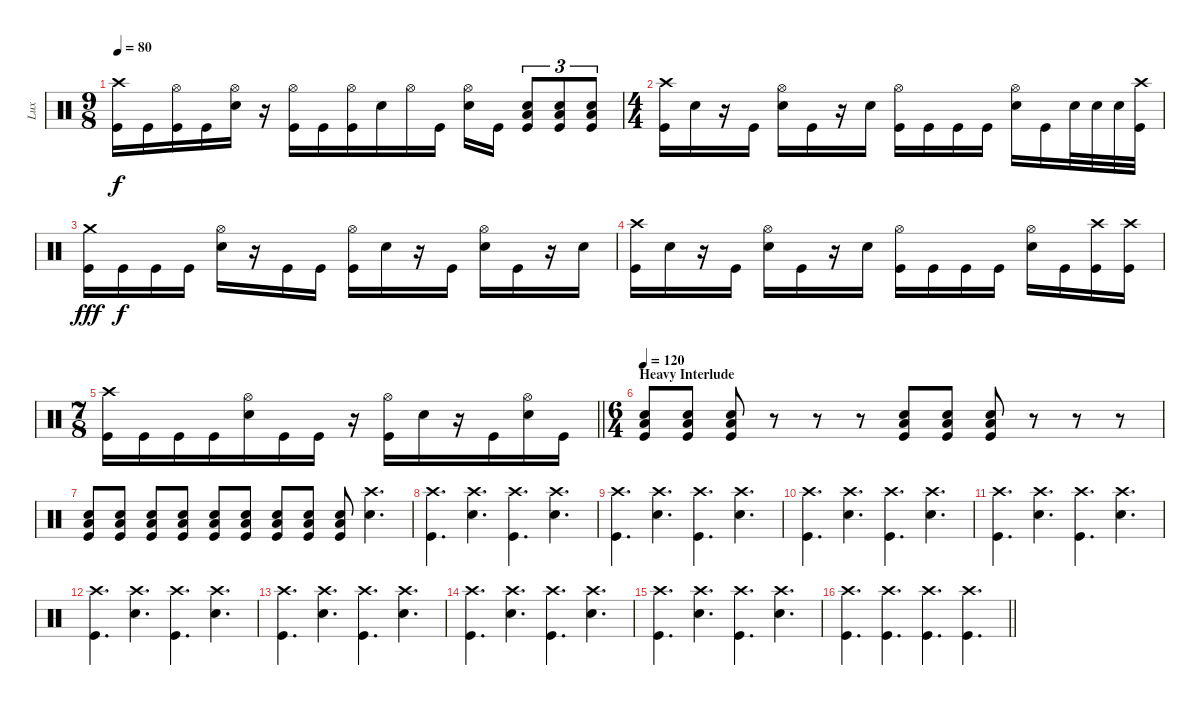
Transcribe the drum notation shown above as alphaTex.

\track ("Lux" "Lux") {instrument percussion}
\staff {score}
\articulation defaults
\ts (9 8)
\tempo 80
\clef neutral
\ks c
("Crash high (hit)" "Kick (hit)").16{dy f} "Kick (hit)".16 ("Hi-Hat (open)" "Kick (hit)").16 "Kick (hit)".16 ("Hi-Hat (open)" "Snare (hit) 2").16 r.16 ("Hi-Hat (open)" "Kick (hit)").16 "Kick (hit)".16 ("Hi-Hat (open)" "Kick (hit)").16 "Snare (hit) 2".16 "Hi-Hat (open)".16 "Kick (hit)".16 ("Hi-Hat (open)" "Snare (hit) 2").16 "Kick (hit)".16 ("Low Tom (hit)" "Snare (hit) 2" "Kick (hit)").8{tu (3 2)} ("Low Tom (hit)" "Snare (hit) 2" "Kick (hit)").8{tu (3 2)} ("Low Tom (hit)" "Snare (hit) 2" "Kick (hit)").8{tu (3 2)} |
\ts (4 4)
("Crash high (hit)" "Kick (hit)").16 "Snare (hit) 2".16 r.16 "Kick (hit)".16 ("Hi-Hat (open)" "Snare (hit) 2").16 "Kick (hit)".16 r.16 "Snare (hit) 2".16 ("Hi-Hat (open)" "Kick (hit)").16 "Kick (hit)".16 "Kick (hit)".16 "Kick (hit)".16 ("Hi-Hat (open)" "Snare (hit) 2").16 "Kick (hit)".16 "Snare (hit) 2".32 "Snare (hit) 2".32 "Snare (hit) 2".32 ("Crash high (hit)" "Kick (hit)").32 |
("Crash medium (hit)" "Kick (hit)").16{dy fff} "Kick (hit)".16{dy f} "Kick (hit)".16 "Kick (hit)".16 ("Hi-Hat (open)" "Snare (hit) 2").16 r.16 "Kick (hit)".16 "Kick (hit)".16 ("Hi-Hat (open)" "Kick (hit)").16 "Snare (hit) 2".16 r.16 "Kick (hit)".16 ("Hi-Hat (open)" "Snare (hit) 2").16 "Kick (hit)".16 r.16 "Snare (hit) 2".16 |
("Crash high (hit)" "Kick (hit)").16 "Snare (hit) 2".16 r.16 "Kick (hit)".16 ("Hi-Hat (open)" "Snare (hit) 2").16 "Kick (hit)".16 r.16 "Snare (hit) 2".16 ("Hi-Hat (open)" "Kick (hit)").16 "Kick (hit)".16 "Kick (hit)".16 "Kick (hit)".16 ("Hi-Hat (open)" "Snare (hit) 2").16 "Kick (hit)".16 ("Crash high (hit)" "Kick (hit)").16 ("Crash high (hit)" "Kick (hit)").16 |
\ts (7 8)
\barLineRight lightlight
("Crash high (hit)" "Kick (hit)").16 "Kick (hit)".16 "Kick (hit)".16 "Kick (hit)".16 ("Hi-Hat (open)" "Snare (hit) 2").16 "Kick (hit)".16 "Kick (hit)".16 r.16 ("Hi-Hat (open)" "Kick (hit)").16 "Snare (hit) 2".16 r.16 "Kick (hit)".16 ("Hi-Hat (open)" "Snare (hit) 2").16 "Kick (hit)".16 |
\ts (6 4)
\section ("" "Heavy Interlude")
\tempo 120
("Low Tom (hit)" "Snare (hit) 2" "Kick (hit)").8 ("Low Tom (hit)" "Snare (hit) 2" "Kick (hit)").8 ("Low Tom (hit)" "Snare (hit) 2" "Kick (hit)").8 r.8 r.8 r.8 ("Low Tom (hit)" "Snare (hit) 2" "Kick (hit)").8 ("Low Tom (hit)" "Snare (hit) 2" "Kick (hit)").8 ("Low Tom (hit)" "Snare (hit) 2" "Kick (hit)").8 r.8 r.8 r.8 |
("Low Tom (hit)" "Snare (hit) 2" "Kick (hit)").8 ("Low Tom (hit)" "Snare (hit) 2" "Kick (hit)").8 ("Low Tom (hit)" "Snare (hit) 2" "Kick (hit)").8 ("Low Tom (hit)" "Snare (hit) 2" "Kick (hit)").8 ("Low Tom (hit)" "Snare (hit) 2" "Kick (hit)").8 ("Low Tom (hit)" "Snare (hit) 2" "Kick (hit)").8 ("Low Tom (hit)" "Snare (hit) 2" "Kick (hit)").8 ("Low Tom (hit)" "Snare (hit) 2" "Kick (hit)").8 ("Low Tom (hit)" "Snare (hit) 2" "Kick (hit)").8 ("Crash high (hit)" "Snare (hit) 2").4{d} |
("Crash high (hit)" "Kick (hit)").4{d} ("Crash high (hit)" "Snare (hit) 2").4{d} ("Crash high (hit)" "Kick (hit)").4{d} ("Crash high (hit)" "Snare (hit) 2").4{d} |
("Crash high (hit)" "Kick (hit)").4{d} ("Crash high (hit)" "Snare (hit) 2").4{d} ("Crash high (hit)" "Kick (hit)").4{d} ("Crash high (hit)" "Snare (hit) 2").4{d} |
("Crash high (hit)" "Kick (hit)").4{d} ("Crash high (hit)" "Snare (hit) 2").4{d} ("Crash high (hit)" "Kick (hit)").4{d} ("Crash high (hit)" "Snare (hit) 2").4{d} |
("Crash high (hit)" "Kick (hit)").4{d} ("Crash high (hit)" "Snare (hit) 2").4{d} ("Crash high (hit)" "Kick (hit)").4{d} ("Crash high (hit)" "Snare (hit) 2").4{d} |
("Crash high (hit)" "Kick (hit)").4{d} ("Crash high (hit)" "Snare (hit) 2").4{d} ("Crash high (hit)" "Kick (hit)").4{d} ("Crash high (hit)" "Snare (hit) 2").4{d} |
("Crash high (hit)" "Kick (hit)").4{d} ("Crash high (hit)" "Snare (hit) 2").4{d} ("Crash high (hit)" "Kick (hit)").4{d} ("Crash high (hit)" "Snare (hit) 2").4{d} |
("Crash high (hit)" "Kick (hit)").4{d} ("Crash high (hit)" "Snare (hit) 2").4{d} ("Crash high (hit)" "Kick (hit)").4{d} ("Crash high (hit)" "Snare (hit) 2").4{d} |
("Crash high (hit)" "Kick (hit)").4{d} ("Crash high (hit)" "Snare (hit) 2").4{d} ("Crash high (hit)" "Kick (hit)").4{d} ("Crash high (hit)" "Snare (hit) 2").4{d} |
\barLineRight lightlight
("Crash high (hit)" "Kick (hit)").4{d} ("Crash high (hit)" "Kick (hit)").4{d} ("Crash high (hit)" "Kick (hit)").4{d} ("Crash high (hit)" "Kick (hit)").4{d}
